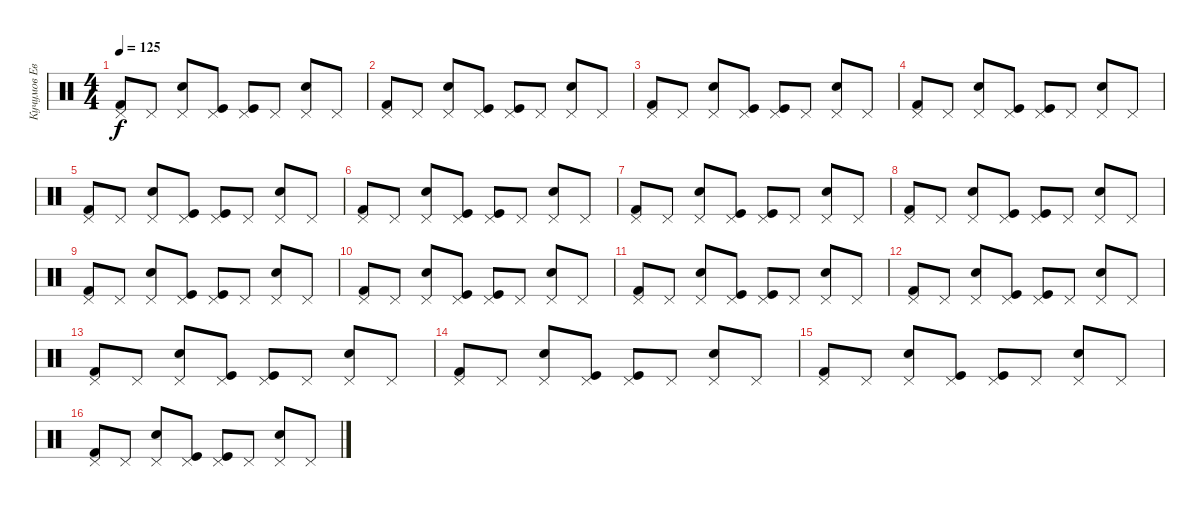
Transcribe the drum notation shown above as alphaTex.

\track ("Кучумов Евгений" "Кучумов Ев") {instrument percussion}
\staff {score}
\articulation defaults
\ts (4 4)
\tempo 125
\clef neutral
\ks c
("Kick (hit) 2" "Pedal Hi-Hat (hit)").8{dy f} "Pedal Hi-Hat (hit)".8 ("Electric Snare (hit)" "Pedal Hi-Hat (hit)").8 ("Kick (hit)" "Pedal Hi-Hat (hit)").8 ("Kick (hit)" "Pedal Hi-Hat (hit)").8 "Pedal Hi-Hat (hit)".8 ("Electric Snare (hit)" "Pedal Hi-Hat (hit)").8 "Pedal Hi-Hat (hit)".8 |
("Kick (hit) 2" "Pedal Hi-Hat (hit)").8 "Pedal Hi-Hat (hit)".8 ("Electric Snare (hit)" "Pedal Hi-Hat (hit)").8 ("Kick (hit)" "Pedal Hi-Hat (hit)").8 ("Kick (hit)" "Pedal Hi-Hat (hit)").8 "Pedal Hi-Hat (hit)".8 ("Electric Snare (hit)" "Pedal Hi-Hat (hit)").8 "Pedal Hi-Hat (hit)".8 |
("Kick (hit) 2" "Pedal Hi-Hat (hit)").8 "Pedal Hi-Hat (hit)".8 ("Electric Snare (hit)" "Pedal Hi-Hat (hit)").8 ("Kick (hit)" "Pedal Hi-Hat (hit)").8 ("Kick (hit)" "Pedal Hi-Hat (hit)").8 "Pedal Hi-Hat (hit)".8 ("Electric Snare (hit)" "Pedal Hi-Hat (hit)").8 "Pedal Hi-Hat (hit)".8 |
("Kick (hit) 2" "Pedal Hi-Hat (hit)").8 "Pedal Hi-Hat (hit)".8 ("Electric Snare (hit)" "Pedal Hi-Hat (hit)").8 ("Kick (hit)" "Pedal Hi-Hat (hit)").8 ("Kick (hit)" "Pedal Hi-Hat (hit)").8 "Pedal Hi-Hat (hit)".8 ("Electric Snare (hit)" "Pedal Hi-Hat (hit)").8 "Pedal Hi-Hat (hit)".8 |
("Kick (hit) 2" "Pedal Hi-Hat (hit)").8 "Pedal Hi-Hat (hit)".8 ("Electric Snare (hit)" "Pedal Hi-Hat (hit)").8 ("Kick (hit)" "Pedal Hi-Hat (hit)").8 ("Kick (hit)" "Pedal Hi-Hat (hit)").8 "Pedal Hi-Hat (hit)".8 ("Electric Snare (hit)" "Pedal Hi-Hat (hit)").8 "Pedal Hi-Hat (hit)".8 |
("Kick (hit) 2" "Pedal Hi-Hat (hit)").8 "Pedal Hi-Hat (hit)".8 ("Electric Snare (hit)" "Pedal Hi-Hat (hit)").8 ("Kick (hit)" "Pedal Hi-Hat (hit)").8 ("Kick (hit)" "Pedal Hi-Hat (hit)").8 "Pedal Hi-Hat (hit)".8 ("Electric Snare (hit)" "Pedal Hi-Hat (hit)").8 "Pedal Hi-Hat (hit)".8 |
("Kick (hit) 2" "Pedal Hi-Hat (hit)").8 "Pedal Hi-Hat (hit)".8 ("Electric Snare (hit)" "Pedal Hi-Hat (hit)").8 ("Kick (hit)" "Pedal Hi-Hat (hit)").8 ("Kick (hit)" "Pedal Hi-Hat (hit)").8 "Pedal Hi-Hat (hit)".8 ("Electric Snare (hit)" "Pedal Hi-Hat (hit)").8 "Pedal Hi-Hat (hit)".8 |
("Kick (hit) 2" "Pedal Hi-Hat (hit)").8 "Pedal Hi-Hat (hit)".8 ("Electric Snare (hit)" "Pedal Hi-Hat (hit)").8 ("Kick (hit)" "Pedal Hi-Hat (hit)").8 ("Kick (hit)" "Pedal Hi-Hat (hit)").8 "Pedal Hi-Hat (hit)".8 ("Electric Snare (hit)" "Pedal Hi-Hat (hit)").8 "Pedal Hi-Hat (hit)".8 |
("Kick (hit) 2" "Pedal Hi-Hat (hit)").8 "Pedal Hi-Hat (hit)".8 ("Electric Snare (hit)" "Pedal Hi-Hat (hit)").8 ("Kick (hit)" "Pedal Hi-Hat (hit)").8 ("Kick (hit)" "Pedal Hi-Hat (hit)").8 "Pedal Hi-Hat (hit)".8 ("Electric Snare (hit)" "Pedal Hi-Hat (hit)").8 "Pedal Hi-Hat (hit)".8 |
("Kick (hit) 2" "Pedal Hi-Hat (hit)").8 "Pedal Hi-Hat (hit)".8 ("Electric Snare (hit)" "Pedal Hi-Hat (hit)").8 ("Kick (hit)" "Pedal Hi-Hat (hit)").8 ("Kick (hit)" "Pedal Hi-Hat (hit)").8 "Pedal Hi-Hat (hit)".8 ("Electric Snare (hit)" "Pedal Hi-Hat (hit)").8 "Pedal Hi-Hat (hit)".8 |
("Kick (hit) 2" "Pedal Hi-Hat (hit)").8 "Pedal Hi-Hat (hit)".8 ("Electric Snare (hit)" "Pedal Hi-Hat (hit)").8 ("Kick (hit)" "Pedal Hi-Hat (hit)").8 ("Kick (hit)" "Pedal Hi-Hat (hit)").8 "Pedal Hi-Hat (hit)".8 ("Electric Snare (hit)" "Pedal Hi-Hat (hit)").8 "Pedal Hi-Hat (hit)".8 |
("Kick (hit) 2" "Pedal Hi-Hat (hit)").8 "Pedal Hi-Hat (hit)".8 ("Electric Snare (hit)" "Pedal Hi-Hat (hit)").8 ("Kick (hit)" "Pedal Hi-Hat (hit)").8 ("Kick (hit)" "Pedal Hi-Hat (hit)").8 "Pedal Hi-Hat (hit)".8 ("Electric Snare (hit)" "Pedal Hi-Hat (hit)").8 "Pedal Hi-Hat (hit)".8 |
("Kick (hit) 2" "Pedal Hi-Hat (hit)").8 "Pedal Hi-Hat (hit)".8 ("Electric Snare (hit)" "Pedal Hi-Hat (hit)").8 ("Kick (hit)" "Pedal Hi-Hat (hit)").8 ("Kick (hit)" "Pedal Hi-Hat (hit)").8 "Pedal Hi-Hat (hit)".8 ("Electric Snare (hit)" "Pedal Hi-Hat (hit)").8 "Pedal Hi-Hat (hit)".8 |
("Kick (hit) 2" "Pedal Hi-Hat (hit)").8 "Pedal Hi-Hat (hit)".8 ("Electric Snare (hit)" "Pedal Hi-Hat (hit)").8 ("Kick (hit)" "Pedal Hi-Hat (hit)").8 ("Kick (hit)" "Pedal Hi-Hat (hit)").8 "Pedal Hi-Hat (hit)".8 ("Electric Snare (hit)" "Pedal Hi-Hat (hit)").8 "Pedal Hi-Hat (hit)".8 |
("Kick (hit) 2" "Pedal Hi-Hat (hit)").8 "Pedal Hi-Hat (hit)".8 ("Electric Snare (hit)" "Pedal Hi-Hat (hit)").8 ("Kick (hit)" "Pedal Hi-Hat (hit)").8 ("Kick (hit)" "Pedal Hi-Hat (hit)").8 "Pedal Hi-Hat (hit)".8 ("Electric Snare (hit)" "Pedal Hi-Hat (hit)").8 "Pedal Hi-Hat (hit)".8 |
("Kick (hit) 2" "Pedal Hi-Hat (hit)").8 "Pedal Hi-Hat (hit)".8 ("Electric Snare (hit)" "Pedal Hi-Hat (hit)").8 ("Kick (hit)" "Pedal Hi-Hat (hit)").8 ("Kick (hit)" "Pedal Hi-Hat (hit)").8 "Pedal Hi-Hat (hit)".8 ("Electric Snare (hit)" "Pedal Hi-Hat (hit)").8 "Pedal Hi-Hat (hit)".8
